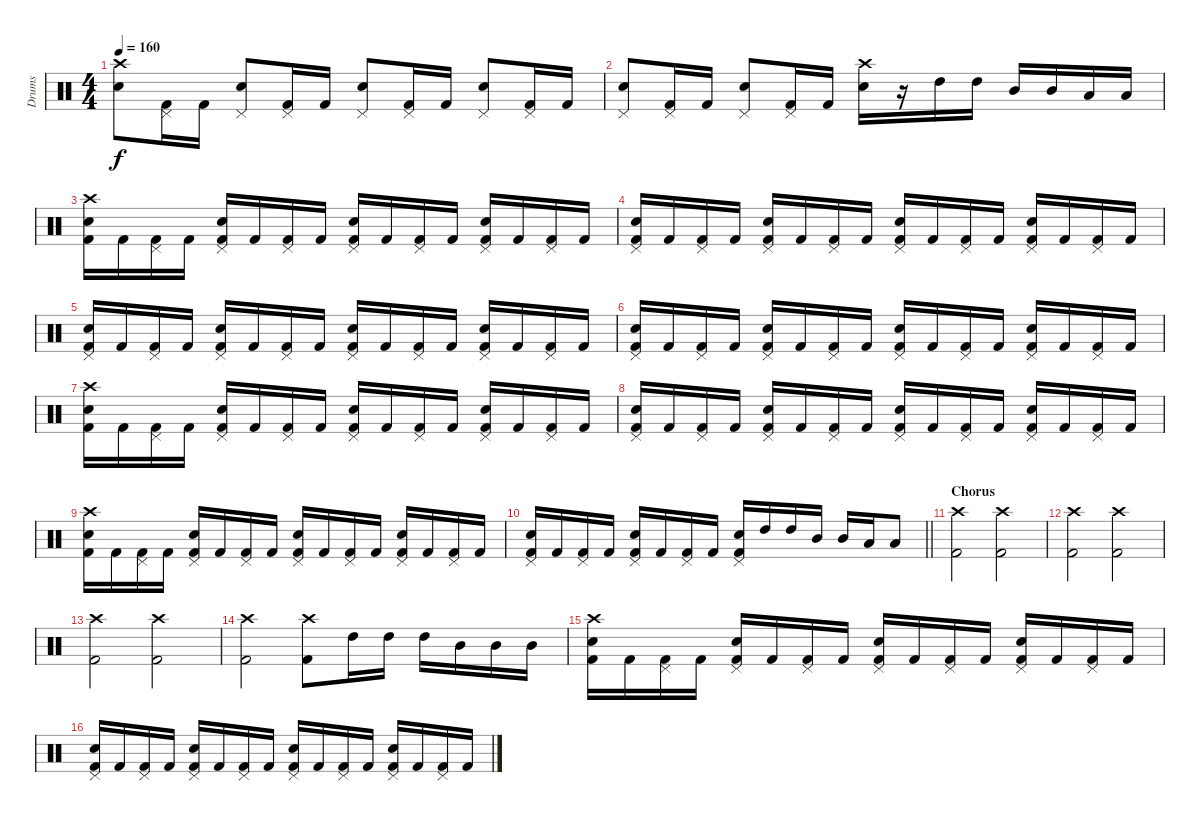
\track ("Drums" "Drums") {instrument percussion}
\staff {score}
\articulation defaults
\ts (4 4)
\tempo 160
\clef neutral
\ks c
("Crash high (hit)" "Snare (hit) 2").8{dy f} ("Pedal Hi-Hat (hit)" "Kick (hit) 2").16 "Kick (hit) 2".16 ("Pedal Hi-Hat (hit)" "Snare (hit) 2").8 ("Pedal Hi-Hat (hit)" "Kick (hit) 2").16 "Kick (hit) 2".16 ("Pedal Hi-Hat (hit)" "Snare (hit) 2").8 ("Pedal Hi-Hat (hit)" "Kick (hit) 2").16 "Kick (hit) 2".16 ("Pedal Hi-Hat (hit)" "Snare (hit) 2").8 ("Pedal Hi-Hat (hit)" "Kick (hit) 2").16 "Kick (hit) 2".16 |
("Pedal Hi-Hat (hit)" "Snare (hit) 2").8 ("Pedal Hi-Hat (hit)" "Kick (hit) 2").16 "Kick (hit) 2".16 ("Pedal Hi-Hat (hit)" "Snare (hit) 2").8 ("Pedal Hi-Hat (hit)" "Kick (hit) 2").16 "Kick (hit) 2".16 ("Crash high (hit)" "Snare (hit) 2").16 r.16 "High Tom (hit)".16 "High Tom (hit)".16 "Mid Tom (hit)".16 "Mid Tom (hit)".16 "Low Tom (hit)".16 "Low Tom (hit)".16 |
("Crash high (hit)" "Snare (hit) 2" "Kick (hit) 2").16 "Kick (hit) 2".16 ("Pedal Hi-Hat (hit)" "Kick (hit) 2").16 "Kick (hit) 2".16 ("Pedal Hi-Hat (hit)" "Snare (hit) 2" "Kick (hit) 2").16 "Kick (hit) 2".16 ("Pedal Hi-Hat (hit)" "Kick (hit) 2").16 "Kick (hit) 2".16 ("Pedal Hi-Hat (hit)" "Snare (hit) 2" "Kick (hit) 2").16 "Kick (hit) 2".16 ("Pedal Hi-Hat (hit)" "Kick (hit) 2").16 "Kick (hit) 2".16 ("Pedal Hi-Hat (hit)" "Snare (hit) 2" "Kick (hit) 2").16 "Kick (hit) 2".16 ("Pedal Hi-Hat (hit)" "Kick (hit) 2").16 "Kick (hit) 2".16 |
("Pedal Hi-Hat (hit)" "Snare (hit) 2" "Kick (hit) 2").16 "Kick (hit) 2".16 ("Pedal Hi-Hat (hit)" "Kick (hit) 2").16 "Kick (hit) 2".16 ("Pedal Hi-Hat (hit)" "Snare (hit) 2" "Kick (hit) 2").16 "Kick (hit) 2".16 ("Pedal Hi-Hat (hit)" "Kick (hit) 2").16 "Kick (hit) 2".16 ("Pedal Hi-Hat (hit)" "Snare (hit) 2" "Kick (hit) 2").16 "Kick (hit) 2".16 ("Pedal Hi-Hat (hit)" "Kick (hit) 2").16 "Kick (hit) 2".16 ("Pedal Hi-Hat (hit)" "Snare (hit) 2" "Kick (hit) 2").16 "Kick (hit) 2".16 ("Pedal Hi-Hat (hit)" "Kick (hit) 2").16 "Kick (hit) 2".16 |
("Pedal Hi-Hat (hit)" "Snare (hit) 2" "Kick (hit) 2").16 "Kick (hit) 2".16 ("Pedal Hi-Hat (hit)" "Kick (hit) 2").16 "Kick (hit) 2".16 ("Pedal Hi-Hat (hit)" "Snare (hit) 2" "Kick (hit) 2").16 "Kick (hit) 2".16 ("Pedal Hi-Hat (hit)" "Kick (hit) 2").16 "Kick (hit) 2".16 ("Pedal Hi-Hat (hit)" "Snare (hit) 2" "Kick (hit) 2").16 "Kick (hit) 2".16 ("Pedal Hi-Hat (hit)" "Kick (hit) 2").16 "Kick (hit) 2".16 ("Pedal Hi-Hat (hit)" "Snare (hit) 2" "Kick (hit) 2").16 "Kick (hit) 2".16 ("Pedal Hi-Hat (hit)" "Kick (hit) 2").16 "Kick (hit) 2".16 |
("Pedal Hi-Hat (hit)" "Snare (hit) 2" "Kick (hit) 2").16 "Kick (hit) 2".16 ("Pedal Hi-Hat (hit)" "Kick (hit) 2").16 "Kick (hit) 2".16 ("Pedal Hi-Hat (hit)" "Snare (hit) 2" "Kick (hit) 2").16 "Kick (hit) 2".16 ("Pedal Hi-Hat (hit)" "Kick (hit) 2").16 "Kick (hit) 2".16 ("Pedal Hi-Hat (hit)" "Snare (hit) 2" "Kick (hit) 2").16 "Kick (hit) 2".16 ("Pedal Hi-Hat (hit)" "Kick (hit) 2").16 "Kick (hit) 2".16 ("Pedal Hi-Hat (hit)" "Snare (hit) 2" "Kick (hit) 2").16 "Kick (hit) 2".16 ("Pedal Hi-Hat (hit)" "Kick (hit) 2").16 "Kick (hit) 2".16 |
("Crash high (hit)" "Snare (hit) 2" "Kick (hit) 2").16 "Kick (hit) 2".16 ("Pedal Hi-Hat (hit)" "Kick (hit) 2").16 "Kick (hit) 2".16 ("Pedal Hi-Hat (hit)" "Snare (hit) 2" "Kick (hit) 2").16 "Kick (hit) 2".16 ("Pedal Hi-Hat (hit)" "Kick (hit) 2").16 "Kick (hit) 2".16 ("Pedal Hi-Hat (hit)" "Snare (hit) 2" "Kick (hit) 2").16 "Kick (hit) 2".16 ("Pedal Hi-Hat (hit)" "Kick (hit) 2").16 "Kick (hit) 2".16 ("Pedal Hi-Hat (hit)" "Snare (hit) 2" "Kick (hit) 2").16 "Kick (hit) 2".16 ("Pedal Hi-Hat (hit)" "Kick (hit) 2").16 "Kick (hit) 2".16 |
("Pedal Hi-Hat (hit)" "Snare (hit) 2" "Kick (hit) 2").16 "Kick (hit) 2".16 ("Pedal Hi-Hat (hit)" "Kick (hit) 2").16 "Kick (hit) 2".16 ("Pedal Hi-Hat (hit)" "Snare (hit) 2" "Kick (hit) 2").16 "Kick (hit) 2".16 ("Pedal Hi-Hat (hit)" "Kick (hit) 2").16 "Kick (hit) 2".16 ("Pedal Hi-Hat (hit)" "Snare (hit) 2" "Kick (hit) 2").16 "Kick (hit) 2".16 ("Pedal Hi-Hat (hit)" "Kick (hit) 2").16 "Kick (hit) 2".16 ("Pedal Hi-Hat (hit)" "Snare (hit) 2" "Kick (hit) 2").16 "Kick (hit) 2".16 ("Pedal Hi-Hat (hit)" "Kick (hit) 2").16 "Kick (hit) 2".16 |
("Crash high (hit)" "Snare (hit) 2" "Kick (hit) 2").16 "Kick (hit) 2".16 ("Pedal Hi-Hat (hit)" "Kick (hit) 2").16 "Kick (hit) 2".16 ("Pedal Hi-Hat (hit)" "Snare (hit) 2" "Kick (hit) 2").16 "Kick (hit) 2".16 ("Pedal Hi-Hat (hit)" "Kick (hit) 2").16 "Kick (hit) 2".16 ("Pedal Hi-Hat (hit)" "Snare (hit) 2" "Kick (hit) 2").16 "Kick (hit) 2".16 ("Pedal Hi-Hat (hit)" "Kick (hit) 2").16 "Kick (hit) 2".16 ("Pedal Hi-Hat (hit)" "Snare (hit) 2" "Kick (hit) 2").16 "Kick (hit) 2".16 ("Pedal Hi-Hat (hit)" "Kick (hit) 2").16 "Kick (hit) 2".16 |
\barLineRight lightlight
("Pedal Hi-Hat (hit)" "Snare (hit) 2" "Kick (hit) 2").16 "Kick (hit) 2".16 ("Pedal Hi-Hat (hit)" "Kick (hit) 2").16 "Kick (hit) 2".16 ("Pedal Hi-Hat (hit)" "Snare (hit) 2" "Kick (hit) 2").16 "Kick (hit) 2".16 ("Pedal Hi-Hat (hit)" "Kick (hit) 2").16 "Kick (hit) 2".16 ("Pedal Hi-Hat (hit)" "Snare (hit) 2" "Kick (hit) 2").16 "High Tom (hit)".16 "High Tom (hit)".16 "Mid Tom (hit)".16 "Mid Tom (hit)".16 "Low Tom (hit)".16 "Low Tom (hit)".8 |
\section ("" "Chorus")
("Crash high (hit)" "Kick (hit) 2").2 ("Crash high (hit)" "Kick (hit) 2").2 |
("Crash high (hit)" "Kick (hit) 2").2 ("Crash high (hit)" "Kick (hit) 2").2 |
("Crash high (hit)" "Kick (hit) 2").2 ("Crash high (hit)" "Kick (hit) 2").2 |
("Crash high (hit)" "Kick (hit) 2").2 ("Crash high (hit)" "Kick (hit) 2").8 "High Tom (hit)".16 "High Tom (hit)".16 "High Tom (hit)".16 "Mid Tom (hit)".16 "Mid Tom (hit)".16 "Mid Tom (hit)".16 |
("Crash high (hit)" "Snare (hit) 2" "Kick (hit) 2").16 "Kick (hit) 2".16 ("Pedal Hi-Hat (hit)" "Kick (hit) 2").16 "Kick (hit) 2".16 ("Pedal Hi-Hat (hit)" "Snare (hit) 2" "Kick (hit) 2").16 "Kick (hit) 2".16 ("Pedal Hi-Hat (hit)" "Kick (hit) 2").16 "Kick (hit) 2".16 ("Pedal Hi-Hat (hit)" "Snare (hit) 2" "Kick (hit) 2").16 "Kick (hit) 2".16 ("Pedal Hi-Hat (hit)" "Kick (hit) 2").16 "Kick (hit) 2".16 ("Pedal Hi-Hat (hit)" "Snare (hit) 2" "Kick (hit) 2").16 "Kick (hit) 2".16 ("Pedal Hi-Hat (hit)" "Kick (hit) 2").16 "Kick (hit) 2".16 |
("Pedal Hi-Hat (hit)" "Snare (hit) 2" "Kick (hit) 2").16 "Kick (hit) 2".16 ("Pedal Hi-Hat (hit)" "Kick (hit) 2").16 "Kick (hit) 2".16 ("Pedal Hi-Hat (hit)" "Snare (hit) 2" "Kick (hit) 2").16 "Kick (hit) 2".16 ("Pedal Hi-Hat (hit)" "Kick (hit) 2").16 "Kick (hit) 2".16 ("Pedal Hi-Hat (hit)" "Snare (hit) 2" "Kick (hit) 2").16 "Kick (hit) 2".16 ("Pedal Hi-Hat (hit)" "Kick (hit) 2").16 "Kick (hit) 2".16 ("Pedal Hi-Hat (hit)" "Snare (hit) 2" "Kick (hit) 2").16 "Kick (hit) 2".16 ("Pedal Hi-Hat (hit)" "Kick (hit) 2").16 "Kick (hit) 2".16
